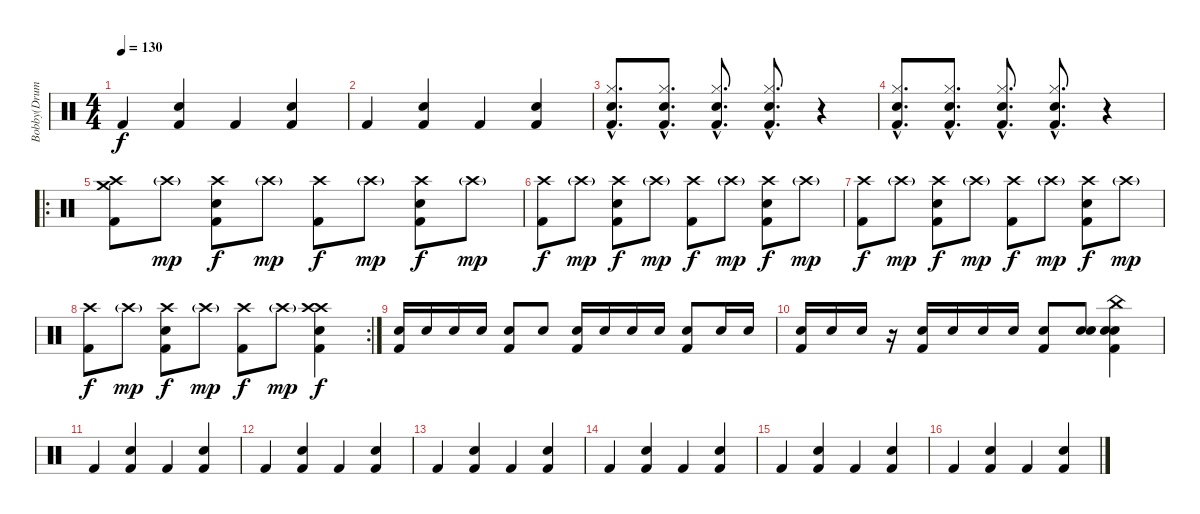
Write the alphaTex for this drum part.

\track ("Bobby(DrumSynth)" "Bobby(Drum") {instrument percussion}
\staff {score}
\articulation defaults
\ts (4 4)
\tempo 130
\clef neutral
\ks c "Kick (hit) 2".4{dy f}
("Kick (hit) 2" "Electric Snare (hit)").4 "Kick (hit) 2".4 ("Kick (hit) 2" "Electric Snare (hit)").4 |
"Kick (hit) 2".4 ("Kick (hit) 2" "Electric Snare (hit)").4 "Kick (hit) 2".4 ("Kick (hit) 2" "Electric Snare (hit)").4 |
("Hi-Hat (closed)"{hac} "Kick (hit) 2"{hac} "Snare (hit) 2"{hac}).8{d} ("Hi-Hat (closed)"{hac} "Kick (hit) 2"{hac} "Snare (hit) 2"{hac}).8{d} ("Hi-Hat (closed)"{hac} "Kick (hit) 2"{hac} "Snare (hit) 2"{hac}).8{d} ("Hi-Hat (closed)"{hac} "Kick (hit) 2"{hac} "Snare (hit) 2"{hac}).8{d} r.4 |
("Hi-Hat (closed)"{hac} "Kick (hit) 2"{hac} "Snare (hit) 2"{hac}).8{d} ("Hi-Hat (closed)"{hac} "Kick (hit) 2"{hac} "Snare (hit) 2"{hac}).8{d} ("Hi-Hat (closed)"{hac} "Kick (hit) 2"{hac} "Snare (hit) 2"{hac}).8{d} ("Hi-Hat (closed)"{hac} "Kick (hit) 2"{hac} "Snare (hit) 2"{hac}).8{d} r.4 |
\ro
("Kick (hit) 2" "Crash high (hit)" "Crash medium (hit)").8 "Crash high (hit)"{g}.8{dy mp} ("Kick (hit) 2" "Electric Snare (hit)" "Crash high (hit)").8{dy f} "Crash high (hit)"{g}.8{dy mp} ("Kick (hit) 2" "Crash high (hit)").8{dy f} "Crash high (hit)"{g}.8{dy mp} ("Kick (hit) 2" "Electric Snare (hit)" "Crash high (hit)").8{dy f} "Crash high (hit)"{g}.8{dy mp} |
("Kick (hit) 2" "Crash high (hit)").8{dy f} "Crash high (hit)"{g}.8{dy mp} ("Kick (hit) 2" "Electric Snare (hit)" "Crash high (hit)").8{dy f} "Crash high (hit)"{g}.8{dy mp} ("Kick (hit) 2" "Crash high (hit)").8{dy f} "Crash high (hit)"{g}.8{dy mp} ("Kick (hit) 2" "Electric Snare (hit)" "Crash high (hit)").8{dy f} "Crash high (hit)"{g}.8{dy mp} |
("Kick (hit) 2" "Crash high (hit)").8{dy f} "Crash high (hit)"{g}.8{dy mp} ("Kick (hit) 2" "Electric Snare (hit)" "Crash high (hit)").8{dy f} "Crash high (hit)"{g}.8{dy mp} ("Kick (hit) 2" "Crash high (hit)").8{dy f} "Crash high (hit)"{g}.8{dy mp} ("Kick (hit) 2" "Electric Snare (hit)" "Crash high (hit)").8{dy f} "Crash high (hit)"{g}.8{dy mp} |
\rc 2
("Kick (hit) 2" "Crash high (hit)").8{dy f} "Crash high (hit)"{g}.8{dy mp} ("Kick (hit) 2" "Electric Snare (hit)" "Crash high (hit)").8{dy f} "Crash high (hit)"{g}.8{dy mp} ("Kick (hit) 2" "Crash high (hit)").8{dy f} "Crash high (hit)"{g}.8{dy mp} ("Kick (hit) 2" "Electric Snare (hit)" "Crash high (hit)" "Crash high (hit)").4{dy f} |
("Kick (hit) 2" "Electric Snare (hit)").16 "Electric Snare (hit)".16 "Electric Snare (hit)".16 "Electric Snare (hit)".16 ("Kick (hit) 2" "Electric Snare (hit)").8 "Electric Snare (hit)".8 ("Kick (hit) 2" "Electric Snare (hit)").16 "Electric Snare (hit)".16 "Electric Snare (hit)".16 "Electric Snare (hit)".16 ("Kick (hit) 2" "Electric Snare (hit)").8 "Electric Snare (hit)".16 "Electric Snare (hit)".16 |
("Kick (hit) 2" "Electric Snare (hit)").16 "Electric Snare (hit)".16 "Electric Snare (hit)".16 r.16 ("Kick (hit) 2" "Electric Snare (hit)").16 "Electric Snare (hit)".16 "Electric Snare (hit)".16 "Electric Snare (hit)".16 ("Kick (hit) 2" "Electric Snare (hit)").8 ("Snare (hit) 2" "Electric Snare (hit)").8 ("Kick (hit) 2" "Snare (hit) 2" "China (hit)" "Electric Snare (hit)").4 |
"Kick (hit) 2".4 ("Kick (hit) 2" "Electric Snare (hit)").4 "Kick (hit) 2".4 ("Kick (hit) 2" "Electric Snare (hit)").4 |
"Kick (hit) 2".4 ("Kick (hit) 2" "Electric Snare (hit)").4 "Kick (hit) 2".4 ("Kick (hit) 2" "Electric Snare (hit)").4 |
"Kick (hit) 2".4 ("Kick (hit) 2" "Electric Snare (hit)").4 "Kick (hit) 2".4 ("Kick (hit) 2" "Electric Snare (hit)").4 |
"Kick (hit) 2".4 ("Kick (hit) 2" "Electric Snare (hit)").4 "Kick (hit) 2".4 ("Kick (hit) 2" "Electric Snare (hit)").4 |
"Kick (hit) 2".4 ("Kick (hit) 2" "Electric Snare (hit)").4 "Kick (hit) 2".4 ("Kick (hit) 2" "Electric Snare (hit)").4 |
"Kick (hit) 2".4 ("Kick (hit) 2" "Electric Snare (hit)").4 "Kick (hit) 2".4 ("Kick (hit) 2" "Electric Snare (hit)").4
